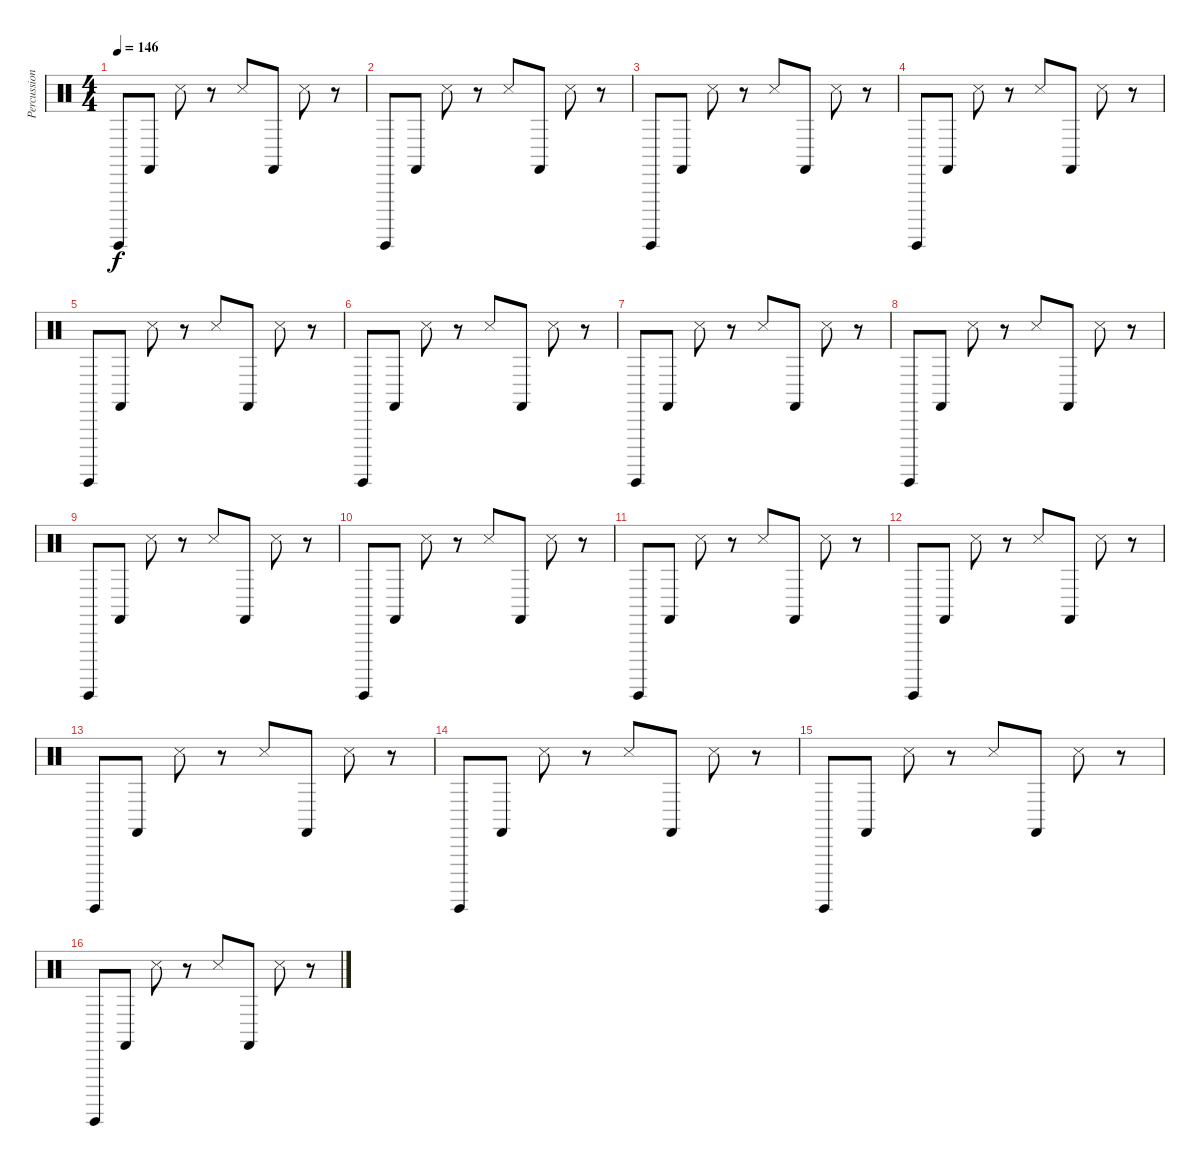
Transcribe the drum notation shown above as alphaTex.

\track ("Percussion" "Percussion") {instrument percussion}
\staff {score}
\articulation defaults
\ts (4 4)
\tempo 146
\clef neutral
\ks c "Guiro (hit)".8{dy f} "Castanets (hit)".8 "Snare (side stick) 3".8
r.8 "Snare (side stick) 3".8 "Castanets (hit)".8 "Snare (side stick) 3".8 r.8 |
"Guiro (hit)".8 "Castanets (hit)".8 "Snare (side stick) 3".8 r.8 "Snare (side stick) 3".8 "Castanets (hit)".8 "Snare (side stick) 3".8 r.8 |
"Guiro (hit)".8 "Castanets (hit)".8 "Snare (side stick) 3".8 r.8 "Snare (side stick) 3".8 "Castanets (hit)".8 "Snare (side stick) 3".8 r.8 |
"Guiro (hit)".8 "Castanets (hit)".8 "Snare (side stick) 3".8 r.8 "Snare (side stick) 3".8 "Castanets (hit)".8 "Snare (side stick) 3".8 r.8 |
"Guiro (hit)".8 "Castanets (hit)".8 "Snare (side stick) 3".8 r.8 "Snare (side stick) 3".8 "Castanets (hit)".8 "Snare (side stick) 3".8 r.8 |
"Guiro (hit)".8 "Castanets (hit)".8 "Snare (side stick) 3".8 r.8 "Snare (side stick) 3".8 "Castanets (hit)".8 "Snare (side stick) 3".8 r.8 |
"Guiro (hit)".8 "Castanets (hit)".8 "Snare (side stick) 3".8 r.8 "Snare (side stick) 3".8 "Castanets (hit)".8 "Snare (side stick) 3".8 r.8 |
"Guiro (hit)".8 "Castanets (hit)".8 "Snare (side stick) 3".8 r.8 "Snare (side stick) 3".8 "Castanets (hit)".8 "Snare (side stick) 3".8 r.8 |
"Guiro (hit)".8 "Castanets (hit)".8 "Snare (side stick) 3".8 r.8 "Snare (side stick) 3".8 "Castanets (hit)".8 "Snare (side stick) 3".8 r.8 |
"Guiro (hit)".8 "Castanets (hit)".8 "Snare (side stick) 3".8 r.8 "Snare (side stick) 3".8 "Castanets (hit)".8 "Snare (side stick) 3".8 r.8 |
"Guiro (hit)".8 "Castanets (hit)".8 "Snare (side stick) 3".8 r.8 "Snare (side stick) 3".8 "Castanets (hit)".8 "Snare (side stick) 3".8 r.8 |
"Guiro (hit)".8 "Castanets (hit)".8 "Snare (side stick) 3".8 r.8 "Snare (side stick) 3".8 "Castanets (hit)".8 "Snare (side stick) 3".8 r.8 |
"Guiro (hit)".8 "Castanets (hit)".8 "Snare (side stick) 3".8 r.8 "Snare (side stick) 3".8 "Castanets (hit)".8 "Snare (side stick) 3".8 r.8 |
"Guiro (hit)".8 "Castanets (hit)".8 "Snare (side stick) 3".8 r.8 "Snare (side stick) 3".8 "Castanets (hit)".8 "Snare (side stick) 3".8 r.8 |
"Guiro (hit)".8 "Castanets (hit)".8 "Snare (side stick) 3".8 r.8 "Snare (side stick) 3".8 "Castanets (hit)".8 "Snare (side stick) 3".8 r.8 |
"Guiro (hit)".8 "Castanets (hit)".8 "Snare (side stick) 3".8 r.8 "Snare (side stick) 3".8 "Castanets (hit)".8 "Snare (side stick) 3".8 r.8
